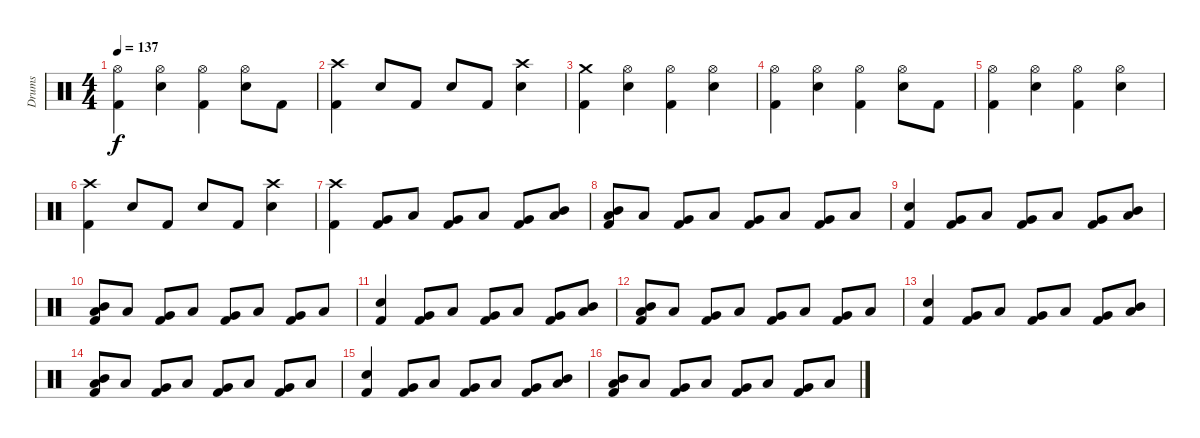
\track ("Drums" "Drums") {instrument percussion}
\staff {score}
\articulation defaults
\ts (4 4)
\tempo 137
\clef neutral
\ks c
("Hi-Hat (open)" "Kick (hit) 2").4{dy f} ("Hi-Hat (open)" "Snare (hit) 2").4 ("Hi-Hat (open)" "Kick (hit) 2").4 ("Hi-Hat (open)" "Snare (hit) 2").8 "Kick (hit) 2".8 |
("Crash high (hit)" "Kick (hit) 2").4 "Snare (hit) 2".8 "Kick (hit) 2".8 "Snare (hit) 2".8 "Kick (hit) 2".8 ("Crash high (hit)" "Snare (hit) 2").4 |
("Crash medium (hit)" "Kick (hit) 2").4 ("Hi-Hat (open)" "Snare (hit) 2").4 ("Hi-Hat (open)" "Kick (hit) 2").4 ("Hi-Hat (open)" "Snare (hit) 2").4 |
("Hi-Hat (open)" "Kick (hit) 2").4 ("Hi-Hat (open)" "Snare (hit) 2").4 ("Hi-Hat (open)" "Kick (hit) 2").4 ("Hi-Hat (open)" "Snare (hit) 2").8 "Kick (hit) 2".8 |
("Hi-Hat (open)" "Kick (hit) 2").4 ("Hi-Hat (open)" "Snare (hit) 2").4 ("Hi-Hat (open)" "Kick (hit) 2").4 ("Hi-Hat (open)" "Snare (hit) 2").4 |
("Crash high (hit)" "Kick (hit) 2").4 "Snare (hit) 2".8 "Kick (hit) 2".8 "Snare (hit) 2".8 "Kick (hit) 2".8 ("Crash high (hit)" "Snare (hit) 2").4 |
("Crash high (hit)" "Kick (hit) 2").4 ("Very Low Tom (hit)" "Kick (hit) 2").8 "Low Floor Tom (hit)".8 ("Very Low Tom (hit)" "Kick (hit) 2").8 "Low Floor Tom (hit)".8 ("Very Low Tom (hit)" "Kick (hit) 2").8 ("Mid Tom (hit)" "Low Floor Tom (hit)").8 |
("Mid Tom (hit)" "Low Floor Tom (hit)" "Kick (hit) 2").8 "Low Floor Tom (hit)".8 ("Very Low Tom (hit)" "Kick (hit) 2").8 "Low Floor Tom (hit)".8 ("Very Low Tom (hit)" "Kick (hit) 2").8 "Low Floor Tom (hit)".8 ("Very Low Tom (hit)" "Kick (hit) 2").8 "Low Floor Tom (hit)".8 |
("Snare (hit) 2" "Kick (hit) 2").4 ("Very Low Tom (hit)" "Kick (hit) 2").8 "Low Floor Tom (hit)".8 ("Very Low Tom (hit)" "Kick (hit) 2").8 "Low Floor Tom (hit)".8 ("Very Low Tom (hit)" "Kick (hit) 2").8 ("Mid Tom (hit)" "Low Floor Tom (hit)").8 |
("Mid Tom (hit)" "Low Floor Tom (hit)" "Kick (hit) 2").8 "Low Floor Tom (hit)".8 ("Very Low Tom (hit)" "Kick (hit) 2").8 "Low Floor Tom (hit)".8 ("Very Low Tom (hit)" "Kick (hit) 2").8 "Low Floor Tom (hit)".8 ("Very Low Tom (hit)" "Kick (hit) 2").8 "Low Floor Tom (hit)".8 |
("Snare (hit) 2" "Kick (hit) 2").4 ("Very Low Tom (hit)" "Kick (hit) 2").8 "Low Floor Tom (hit)".8 ("Very Low Tom (hit)" "Kick (hit) 2").8 "Low Floor Tom (hit)".8 ("Very Low Tom (hit)" "Kick (hit) 2").8 ("Mid Tom (hit)" "Low Floor Tom (hit)").8 |
("Mid Tom (hit)" "Low Floor Tom (hit)" "Kick (hit) 2").8 "Low Floor Tom (hit)".8 ("Very Low Tom (hit)" "Kick (hit) 2").8 "Low Floor Tom (hit)".8 ("Very Low Tom (hit)" "Kick (hit) 2").8 "Low Floor Tom (hit)".8 ("Very Low Tom (hit)" "Kick (hit) 2").8 "Low Floor Tom (hit)".8 |
("Snare (hit) 2" "Kick (hit) 2").4 ("Very Low Tom (hit)" "Kick (hit) 2").8 "Low Floor Tom (hit)".8 ("Very Low Tom (hit)" "Kick (hit) 2").8 "Low Floor Tom (hit)".8 ("Very Low Tom (hit)" "Kick (hit) 2").8 ("Mid Tom (hit)" "Low Floor Tom (hit)").8 |
("Mid Tom (hit)" "Low Floor Tom (hit)" "Kick (hit) 2").8 "Low Floor Tom (hit)".8 ("Very Low Tom (hit)" "Kick (hit) 2").8 "Low Floor Tom (hit)".8 ("Very Low Tom (hit)" "Kick (hit) 2").8 "Low Floor Tom (hit)".8 ("Very Low Tom (hit)" "Kick (hit) 2").8 "Low Floor Tom (hit)".8 |
("Snare (hit) 2" "Kick (hit) 2").4 ("Very Low Tom (hit)" "Kick (hit) 2").8 "Low Floor Tom (hit)".8 ("Very Low Tom (hit)" "Kick (hit) 2").8 "Low Floor Tom (hit)".8 ("Very Low Tom (hit)" "Kick (hit) 2").8 ("Mid Tom (hit)" "Low Floor Tom (hit)").8 |
("Mid Tom (hit)" "Low Floor Tom (hit)" "Kick (hit) 2").8 "Low Floor Tom (hit)".8 ("Very Low Tom (hit)" "Kick (hit) 2").8 "Low Floor Tom (hit)".8 ("Very Low Tom (hit)" "Kick (hit) 2").8 "Low Floor Tom (hit)".8 ("Very Low Tom (hit)" "Kick (hit) 2").8 "Low Floor Tom (hit)".8
